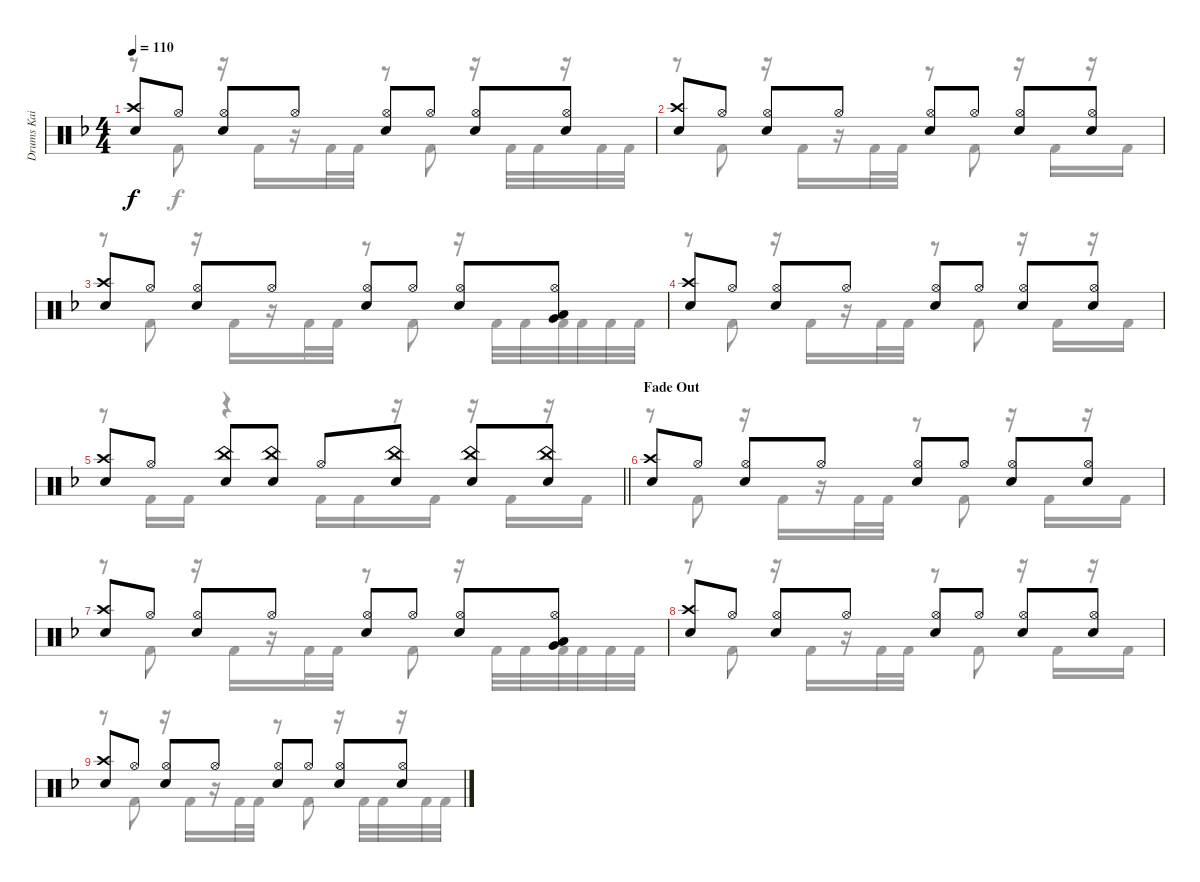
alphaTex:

\track ("Drums Kai" "Drums Kai") {instrument percussion}
\staff {score}
\articulation defaults
\voice
\ts (4 4)
\tempo 110
\clef neutral
\ks f
("Crash high (hit)" "Electric Snare (hit)").8{dy f} "Hi-Hat (open)".8 ("Hi-Hat (open)" "Electric Snare (hit)").8 "Hi-Hat (open)".8 ("Hi-Hat (open)" "Electric Snare (hit)").8 "Hi-Hat (open)".8 ("Hi-Hat (open)" "Electric Snare (hit)").8 ("Hi-Hat (open)" "Electric Snare (hit)").8 |
("Crash high (hit)" "Electric Snare (hit)").8{volume 10} "Hi-Hat (open)".8 ("Hi-Hat (open)" "Electric Snare (hit)").8 "Hi-Hat (open)".8 ("Hi-Hat (open)" "Electric Snare (hit)").8 "Hi-Hat (open)".8 ("Hi-Hat (open)" "Electric Snare (hit)").8 ("Hi-Hat (open)" "Electric Snare (hit)").8 |
("Crash high (hit)" "Electric Snare (hit)").8 "Hi-Hat (open)".8 ("Hi-Hat (open)" "Electric Snare (hit)").8 "Hi-Hat (open)".8 ("Hi-Hat (open)" "Electric Snare (hit)").8 "Hi-Hat (open)".8 ("Hi-Hat (open)" "Electric Snare (hit)").8 ("Hi-Hat (open)" "Low Tom (hit)" "Very Low Tom (hit)").8 |
("Crash high (hit)" "Electric Snare (hit)").8 "Hi-Hat (open)".8 ("Hi-Hat (open)" "Electric Snare (hit)").8 "Hi-Hat (open)".8 ("Hi-Hat (open)" "Electric Snare (hit)").8 "Hi-Hat (open)".8 ("Hi-Hat (open)" "Electric Snare (hit)").8 ("Hi-Hat (open)" "Electric Snare (hit)").8 |
\barLineRight lightlight
("Crash high (hit)" "Electric Snare (hit)").8 "Hi-Hat (open)".8 ("China (hit)" "Electric Snare (hit)").8 ("China (hit)" "Electric Snare (hit)").8 "Hi-Hat (open)".8 ("China (hit)" "Electric Snare (hit)").8 ("China (hit)" "Electric Snare (hit)").8 ("China (hit)" "Electric Snare (hit)").8 |
\section ("" "Fade Out")
("Crash high (hit)" "Electric Snare (hit)").8{volume 2} "Hi-Hat (open)".8 ("Hi-Hat (open)" "Electric Snare (hit)").8 "Hi-Hat (open)".8 ("Hi-Hat (open)" "Electric Snare (hit)").8 "Hi-Hat (open)".8 ("Hi-Hat (open)" "Electric Snare (hit)").8 ("Hi-Hat (open)" "Electric Snare (hit)").8 |
("Crash high (hit)" "Electric Snare (hit)").8 "Hi-Hat (open)".8 ("Hi-Hat (open)" "Electric Snare (hit)").8 "Hi-Hat (open)".8 ("Hi-Hat (open)" "Electric Snare (hit)").8 "Hi-Hat (open)".8 ("Hi-Hat (open)" "Electric Snare (hit)").8 ("Hi-Hat (open)" "Low Tom (hit)" "Very Low Tom (hit)").8 |
("Crash high (hit)" "Electric Snare (hit)").8 "Hi-Hat (open)".8 ("Hi-Hat (open)" "Electric Snare (hit)").8 "Hi-Hat (open)".8 ("Hi-Hat (open)" "Electric Snare (hit)").8 "Hi-Hat (open)".8 ("Hi-Hat (open)" "Electric Snare (hit)").8 ("Hi-Hat (open)" "Electric Snare (hit)").8 |
("Crash high (hit)" "Electric Snare (hit)").8 "Hi-Hat (open)".8 ("Hi-Hat (open)" "Electric Snare (hit)").8 "Hi-Hat (open)".8 ("Hi-Hat (open)" "Electric Snare (hit)").8 "Hi-Hat (open)".8 ("Hi-Hat (open)" "Electric Snare (hit)").8 ("Hi-Hat (open)" "Electric Snare (hit)").8
\voice
\clef neutral
\ottava regular
\simile none
\ks f
r.8{dy f} "Kick (hit) 2".8 r.16 "Kick (hit) 2".16 r.16 "Kick (hit) 2".32 "Kick (hit) 2".32 r.8 "Kick (hit) 2".8 r.16 "Kick (hit) 2".32 "Kick (hit) 2".32 r.16 "Kick (hit) 2".32 "Kick (hit) 2".32 |
r.8 "Kick (hit) 2".8 r.16 "Kick (hit) 2".16 r.16 "Kick (hit) 2".32 "Kick (hit) 2".32 r.8 "Kick (hit) 2".8 r.16 "Kick (hit) 2".16 r.16 "Kick (hit) 2".16 |
r.8 "Kick (hit) 2".8 r.16 "Kick (hit) 2".16 r.16 "Kick (hit) 2".32 "Kick (hit) 2".32 r.8 "Kick (hit) 2".8 r.16 "Kick (hit) 2".32 "Kick (hit) 2".32 "Kick (hit) 2".32 "Kick (hit) 2".32 "Kick (hit) 2".32 "Kick (hit) 2".32 |
r.8 "Kick (hit) 2".8 r.16 "Kick (hit) 2".16 r.16 "Kick (hit) 2".32 "Kick (hit) 2".32 r.8 "Kick (hit) 2".8 r.16 "Kick (hit) 2".16 r.16 "Kick (hit) 2".16 |
\barLineRight lightlight
r.8 "Kick (hit) 2".16 "Kick (hit) 2".16 r.4 "Kick (hit) 2".16 "Kick (hit) 2".16 r.16 "Kick (hit) 2".16 r.16 "Kick (hit) 2".16 r.16 "Kick (hit) 2".16 |
r.8 "Kick (hit) 2".8 r.16 "Kick (hit) 2".16 r.16 "Kick (hit) 2".32 "Kick (hit) 2".32 r.8 "Kick (hit) 2".8 r.16 "Kick (hit) 2".16 r.16 "Kick (hit) 2".16 |
r.8 "Kick (hit) 2".8 r.16 "Kick (hit) 2".16 r.16 "Kick (hit) 2".32 "Kick (hit) 2".32 r.8 "Kick (hit) 2".8 r.16 "Kick (hit) 2".32 "Kick (hit) 2".32 "Kick (hit) 2".32 "Kick (hit) 2".32 "Kick (hit) 2".32 "Kick (hit) 2".32 |
r.8 "Kick (hit) 2".8 r.16 "Kick (hit) 2".16 r.16 "Kick (hit) 2".32 "Kick (hit) 2".32 r.8 "Kick (hit) 2".8 r.16 "Kick (hit) 2".16 r.16 "Kick (hit) 2".16 |
r.8 "Kick (hit) 2".8 r.16 "Kick (hit) 2".16 r.16 "Kick (hit) 2".32 "Kick (hit) 2".32 r.8 "Kick (hit) 2".8 r.16 "Kick (hit) 2".32 "Kick (hit) 2".32 r.16 "Kick (hit) 2".32 "Kick (hit) 2".32
